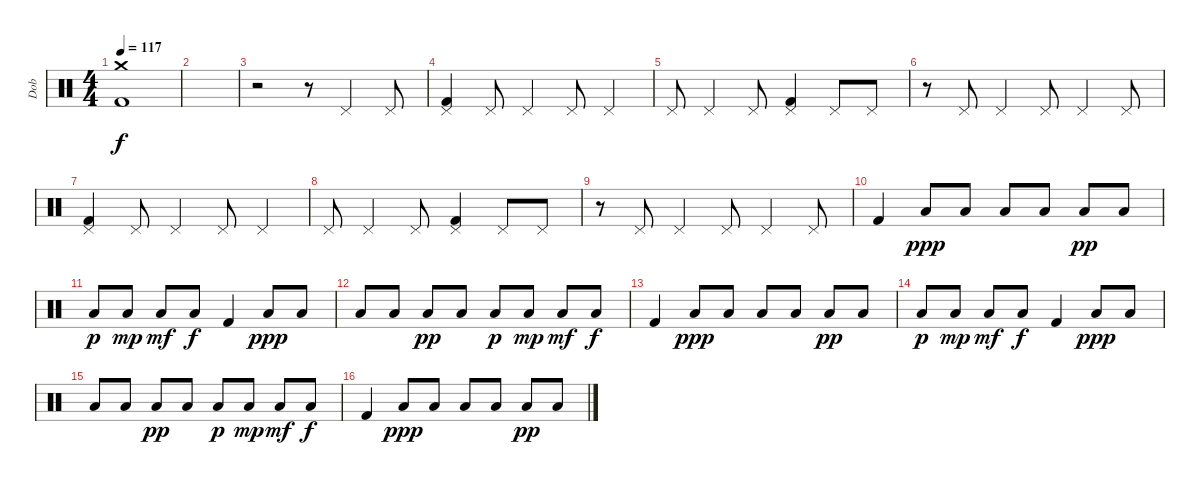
\track ("Dob" "Dob") {instrument percussion}
\staff
\articulation defaults
\ts (4 4)
\tempo 117
\clef neutral
\ks c
("Crash medium (hit)" "Kick (hit) 2").1{dy f} |
|
r.2 r.8 "Pedal Hi-Hat (hit)".4 "Pedal Hi-Hat (hit)".8 |
("Pedal Hi-Hat (hit)" "Kick (hit) 2").4 "Pedal Hi-Hat (hit)".8 "Pedal Hi-Hat (hit)".4 "Pedal Hi-Hat (hit)".8 "Pedal Hi-Hat (hit)".4 |
"Pedal Hi-Hat (hit)".8 "Pedal Hi-Hat (hit)".4 "Pedal Hi-Hat (hit)".8 ("Pedal Hi-Hat (hit)" "Kick (hit) 2").4 "Pedal Hi-Hat (hit)".8 "Pedal Hi-Hat (hit)".8 |
r.8 "Pedal Hi-Hat (hit)".8 "Pedal Hi-Hat (hit)".4 "Pedal Hi-Hat (hit)".8 "Pedal Hi-Hat (hit)".4 "Pedal Hi-Hat (hit)".8 |
("Pedal Hi-Hat (hit)" "Kick (hit) 2").4 "Pedal Hi-Hat (hit)".8 "Pedal Hi-Hat (hit)".4 "Pedal Hi-Hat (hit)".8 "Pedal Hi-Hat (hit)".4 |
"Pedal Hi-Hat (hit)".8 "Pedal Hi-Hat (hit)".4 "Pedal Hi-Hat (hit)".8 ("Pedal Hi-Hat (hit)" "Kick (hit) 2").4 "Pedal Hi-Hat (hit)".8 "Pedal Hi-Hat (hit)".8 |
r.8 "Pedal Hi-Hat (hit)".8 "Pedal Hi-Hat (hit)".4 "Pedal Hi-Hat (hit)".8 "Pedal Hi-Hat (hit)".4 "Pedal Hi-Hat (hit)".8 |
"Kick (hit) 2".4 "Low Floor Tom (hit)".8{dy ppp} "Low Floor Tom (hit)".8 "Low Floor Tom (hit)".8 "Low Floor Tom (hit)".8 "Low Floor Tom (hit)".8{dy pp} "Low Floor Tom (hit)".8 |
"Low Floor Tom (hit)".8{dy p} "Low Floor Tom (hit)".8{dy mp} "Low Floor Tom (hit)".8{dy mf} "Low Floor Tom (hit)".8{dy f} "Kick (hit) 2".4 "Low Floor Tom (hit)".8{dy ppp} "Low Floor Tom (hit)".8 |
"Low Floor Tom (hit)".8 "Low Floor Tom (hit)".8 "Low Floor Tom (hit)".8{dy pp} "Low Floor Tom (hit)".8 "Low Floor Tom (hit)".8{dy p} "Low Floor Tom (hit)".8{dy mp} "Low Floor Tom (hit)".8{dy mf} "Low Floor Tom (hit)".8{dy f} |
"Kick (hit) 2".4 "Low Floor Tom (hit)".8{dy ppp} "Low Floor Tom (hit)".8 "Low Floor Tom (hit)".8 "Low Floor Tom (hit)".8 "Low Floor Tom (hit)".8{dy pp} "Low Floor Tom (hit)".8 |
"Low Floor Tom (hit)".8{dy p} "Low Floor Tom (hit)".8{dy mp} "Low Floor Tom (hit)".8{dy mf} "Low Floor Tom (hit)".8{dy f} "Kick (hit) 2".4 "Low Floor Tom (hit)".8{dy ppp} "Low Floor Tom (hit)".8 |
"Low Floor Tom (hit)".8 "Low Floor Tom (hit)".8 "Low Floor Tom (hit)".8{dy pp} "Low Floor Tom (hit)".8 "Low Floor Tom (hit)".8{dy p} "Low Floor Tom (hit)".8{dy mp} "Low Floor Tom (hit)".8{dy mf} "Low Floor Tom (hit)".8{dy f} |
"Kick (hit) 2".4 "Low Floor Tom (hit)".8{dy ppp} "Low Floor Tom (hit)".8 "Low Floor Tom (hit)".8 "Low Floor Tom (hit)".8 "Low Floor Tom (hit)".8{dy pp} "Low Floor Tom (hit)".8
